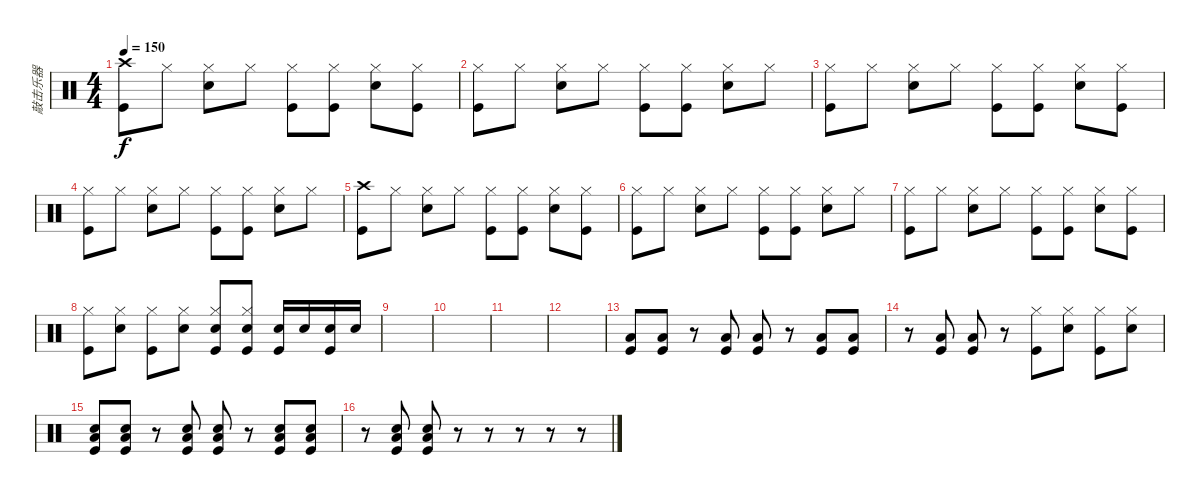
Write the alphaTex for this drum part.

\track ("敲击乐器" "敲击乐器") {instrument percussion}
\staff {score}
\articulation defaults
\ts (4 4)
\tempo 150
\clef neutral
\ks c
("Crash high (hit)" "Kick (hit)").8{dy f} "Hi-Hat (closed)".8 ("Hi-Hat (closed)" "Electric Snare (hit)").8 "Hi-Hat (closed)".8 ("Hi-Hat (closed)" "Kick (hit)").8 ("Hi-Hat (closed)" "Kick (hit)").8 ("Hi-Hat (closed)" "Electric Snare (hit)").8 ("Hi-Hat (closed)" "Kick (hit)").8 |
("Hi-Hat (closed)" "Kick (hit)").8 "Hi-Hat (closed)".8 ("Hi-Hat (closed)" "Electric Snare (hit)").8 "Hi-Hat (closed)".8 ("Hi-Hat (closed)" "Kick (hit)").8 ("Hi-Hat (closed)" "Kick (hit)").8 ("Hi-Hat (closed)" "Electric Snare (hit)").8 "Hi-Hat (closed)".8 |
("Hi-Hat (closed)" "Kick (hit)").8 "Hi-Hat (closed)".8 ("Hi-Hat (closed)" "Electric Snare (hit)").8 "Hi-Hat (closed)".8 ("Hi-Hat (closed)" "Kick (hit)").8 ("Hi-Hat (closed)" "Kick (hit)").8 ("Hi-Hat (closed)" "Electric Snare (hit)").8 ("Hi-Hat (closed)" "Kick (hit)").8 |
("Hi-Hat (closed)" "Kick (hit)").8 "Hi-Hat (closed)".8 ("Hi-Hat (closed)" "Electric Snare (hit)").8 "Hi-Hat (closed)".8 ("Hi-Hat (closed)" "Kick (hit)").8 ("Hi-Hat (closed)" "Kick (hit)").8 ("Hi-Hat (closed)" "Electric Snare (hit)").8 "Hi-Hat (closed)".8 |
("Crash high (hit)" "Kick (hit)").8 "Hi-Hat (closed)".8 ("Hi-Hat (closed)" "Electric Snare (hit)").8 "Hi-Hat (closed)".8 ("Hi-Hat (closed)" "Kick (hit)").8 ("Hi-Hat (closed)" "Kick (hit)").8 ("Hi-Hat (closed)" "Electric Snare (hit)").8 ("Hi-Hat (closed)" "Kick (hit)").8 |
("Hi-Hat (closed)" "Kick (hit)").8 "Hi-Hat (closed)".8 ("Hi-Hat (closed)" "Electric Snare (hit)").8 "Hi-Hat (closed)".8 ("Hi-Hat (closed)" "Kick (hit)").8 ("Hi-Hat (closed)" "Kick (hit)").8 ("Hi-Hat (closed)" "Electric Snare (hit)").8 "Hi-Hat (closed)".8 |
("Hi-Hat (closed)" "Kick (hit)").8 "Hi-Hat (closed)".8 ("Hi-Hat (closed)" "Electric Snare (hit)").8 "Hi-Hat (closed)".8 ("Hi-Hat (closed)" "Kick (hit)").8 ("Hi-Hat (closed)" "Kick (hit)").8 ("Hi-Hat (closed)" "Electric Snare (hit)").8 ("Hi-Hat (closed)" "Kick (hit)").8 |
("Hi-Hat (closed)" "Kick (hit)").8 ("Hi-Hat (closed)" "Electric Snare (hit)").8 ("Hi-Hat (closed)" "Kick (hit)").8 ("Hi-Hat (closed)" "Electric Snare (hit)").8 ("Hi-Hat (closed)" "Electric Snare (hit)" "Kick (hit)").8 ("Hi-Hat (closed)" "Electric Snare (hit)" "Kick (hit)").8 ("Electric Snare (hit)" "Kick (hit)").16 "Electric Snare (hit)".16 ("Electric Snare (hit)" "Kick (hit)").16 "Electric Snare (hit)".16 |
|
|
|
|
("Low Floor Tom (hit)" "Kick (hit)").8 ("Low Floor Tom (hit)" "Kick (hit)").8 r.8 ("Low Floor Tom (hit)" "Kick (hit)").8 ("Low Floor Tom (hit)" "Kick (hit)").8 r.8 ("Low Floor Tom (hit)" "Kick (hit)").8 ("Low Floor Tom (hit)" "Kick (hit)").8 |
r.8 ("Low Floor Tom (hit)" "Kick (hit)").8 ("Low Floor Tom (hit)" "Kick (hit)").8 r.8 ("Hi-Hat (closed)" "Kick (hit)").8 ("Hi-Hat (closed)" "Electric Snare (hit)").8 ("Hi-Hat (closed)" "Kick (hit)").8 ("Hi-Hat (closed)" "Electric Snare (hit)").8 |
("Low Floor Tom (hit)" "Electric Snare (hit)" "Kick (hit)").8 ("Low Floor Tom (hit)" "Electric Snare (hit)" "Kick (hit)").8 r.8 ("Low Floor Tom (hit)" "Electric Snare (hit)" "Kick (hit)").8 ("Low Floor Tom (hit)" "Electric Snare (hit)" "Kick (hit)").8 r.8 ("Low Floor Tom (hit)" "Electric Snare (hit)" "Kick (hit)").8 ("Low Floor Tom (hit)" "Electric Snare (hit)" "Kick (hit)").8 |
r.8 ("Low Floor Tom (hit)" "Electric Snare (hit)" "Kick (hit)").8 ("Low Floor Tom (hit)" "Electric Snare (hit)" "Kick (hit)").8 r.8 r.8 r.8 r.8 r.8
